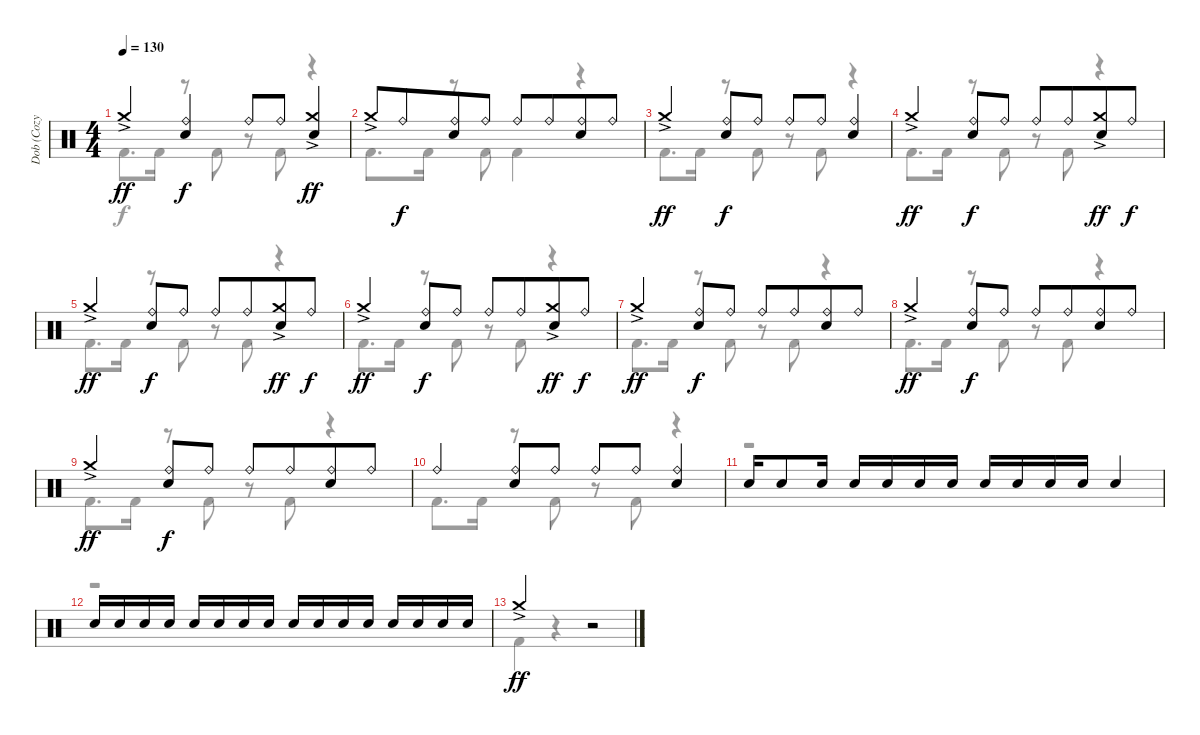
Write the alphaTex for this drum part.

\track ("Dob (Cozy Powell)" "Dob (Cozy ") {instrument percussion}
\staff {score}
\articulation defaults
\voice
\ts (4 4)
\tempo 130
\clef neutral
\ks c "Crash medium (hit)"{ac}.4{dy ff beam merge}
("Ride (bell)" "Electric Snare (hit)").4{dy f} "Ride (bell)".8 "Ride (bell)".8 ("Crash medium (hit)"{ac} "Electric Snare (hit)").4{dy ff} |
"Crash medium (hit)"{ac}.8 "Ride (bell)".8{dy f beam merge} ("Ride (bell)" "Electric Snare (hit)").8 "Ride (bell)".8 "Ride (bell)".8 "Ride (bell)".8{beam merge} ("Ride (bell)" "Electric Snare (hit)").8 "Ride (bell)".8 |
"Crash medium (hit)"{ac}.4{dy ff beam merge} ("Ride (bell)" "Electric Snare (hit)").8{dy f} "Ride (bell)".8 "Ride (bell)".8 "Ride (bell)".8{beam merge} ("Ride (bell)" "Electric Snare (hit)").4 |
"Crash medium (hit)"{ac}.4{dy ff beam merge} ("Ride (bell)" "Electric Snare (hit)").8{dy f} "Ride (bell)".8 "Ride (bell)".8 "Ride (bell)".8{beam merge} ("Crash medium (hit)"{ac} "Electric Snare (hit)").8{dy ff} "Ride (bell)".8{dy f} |
"Crash medium (hit)"{ac}.4{dy ff beam merge} ("Ride (bell)" "Electric Snare (hit)").8{dy f} "Ride (bell)".8 "Ride (bell)".8 "Ride (bell)".8{beam merge} ("Crash medium (hit)"{ac} "Electric Snare (hit)").8{dy ff} "Ride (bell)".8{dy f} |
"Crash medium (hit)"{ac}.4{dy ff beam merge} ("Ride (bell)" "Electric Snare (hit)").8{dy f} "Ride (bell)".8 "Ride (bell)".8 "Ride (bell)".8{beam merge} ("Crash medium (hit)"{ac} "Electric Snare (hit)").8{dy ff} "Ride (bell)".8{dy f} |
"Crash medium (hit)"{ac}.4{dy ff beam merge} ("Ride (bell)" "Electric Snare (hit)").8{dy f} "Ride (bell)".8 "Ride (bell)".8 "Ride (bell)".8{beam merge} ("Ride (bell)" "Electric Snare (hit)").8 "Ride (bell)".8 |
"Crash medium (hit)"{ac}.4{dy ff beam merge} ("Ride (bell)" "Electric Snare (hit)").8{dy f} "Ride (bell)".8 "Ride (bell)".8 "Ride (bell)".8{beam merge} ("Ride (bell)" "Electric Snare (hit)").8 "Ride (bell)".8 |
"Crash medium (hit)"{ac}.4{dy ff beam merge} ("Ride (bell)" "Electric Snare (hit)").8{dy f} "Ride (bell)".8 "Ride (bell)".8 "Ride (bell)".8{beam merge} ("Ride (bell)" "Electric Snare (hit)").8 "Ride (bell)".8 |
"Ride (bell)".4{beam merge} ("Ride (bell)" "Electric Snare (hit)").8 "Ride (bell)".8 "Ride (bell)".8 "Ride (bell)".8 ("Ride (bell)" "Electric Snare (hit)").4 |
"Electric Snare (hit)".16 "Electric Snare (hit)".8 "Electric Snare (hit)".16 "Electric Snare (hit)".16 "Electric Snare (hit)".16 "Electric Snare (hit)".16 "Electric Snare (hit)".16 "Electric Snare (hit)".16 "Electric Snare (hit)".16 "Electric Snare (hit)".16 "Electric Snare (hit)".16 "Electric Snare (hit)".4 |
"Electric Snare (hit)".16 "Electric Snare (hit)".16 "Electric Snare (hit)".16 "Electric Snare (hit)".16 "Electric Snare (hit)".16 "Electric Snare (hit)".16 "Electric Snare (hit)".16 "Electric Snare (hit)".16 "Electric Snare (hit)".16 "Electric Snare (hit)".16 "Electric Snare (hit)".16 "Electric Snare (hit)".16 "Electric Snare (hit)".16 "Electric Snare (hit)".16 "Electric Snare (hit)".16 "Electric Snare (hit)".16 |
"Crash medium (hit)"{ac}.2{dy ff} r.2 |
\voice
\clef neutral
\ottava regular
\simile none
\ks c "Kick (hit) 2".8{d dy f} "Kick (hit) 2".16
r.8 "Kick (hit) 2".8 r.8 "Kick (hit) 2".8 r.4 |
"Kick (hit) 2".8{d} "Kick (hit) 2".16 r.8 "Kick (hit) 2".8 "Kick (hit) 2".4 r.4 |
"Kick (hit) 2".8{d} "Kick (hit) 2".16 r.8 "Kick (hit) 2".8 r.8 "Kick (hit) 2".8 r.4 |
"Kick (hit) 2".8{d} "Kick (hit) 2".16 r.8 "Kick (hit) 2".8 r.8 "Kick (hit) 2".8 r.4 |
"Kick (hit) 2".8{d} "Kick (hit) 2".16 r.8 "Kick (hit) 2".8 r.8 "Kick (hit) 2".8 r.4 |
"Kick (hit) 2".8{d} "Kick (hit) 2".16 r.8 "Kick (hit) 2".8 r.8 "Kick (hit) 2".8 r.4 |
"Kick (hit) 2".8{d} "Kick (hit) 2".16 r.8 "Kick (hit) 2".8 r.8 "Kick (hit) 2".8 r.4 |
"Kick (hit) 2".8{d} "Kick (hit) 2".16 r.8 "Kick (hit) 2".8 r.8 "Kick (hit) 2".8 r.4 |
"Kick (hit) 2".8{d} "Kick (hit) 2".16 r.8 "Kick (hit) 2".8 r.8 "Kick (hit) 2".8 r.4 |
"Kick (hit) 2".8{d} "Kick (hit) 2".16 r.8 "Kick (hit) 2".8 r.8 "Kick (hit) 2".8 r.4 |
r.1 |
r.1 |
"Kick (hit) 2".4 r.4 r.2 |
